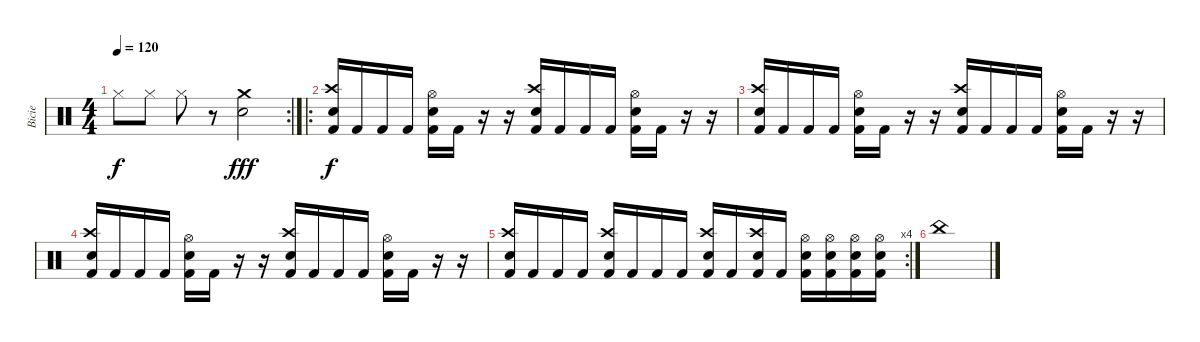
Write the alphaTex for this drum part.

\track ("Bicie" "Bicie") {instrument percussion}
\staff {score}
\articulation defaults
\rc 2
\ts (4 4)
\tempo 120
\clef neutral
\ks c "Hi-Hat (closed)".8{dy f} "Hi-Hat (closed)".8 "Hi-Hat (closed)".8
r.8 ("Crash medium (hit)" "Electric Snare (hit)").2{dy fff} |
\ro
("Crash high (hit)" "Electric Snare (hit)" "Kick (hit) 2").16{dy f} "Kick (hit) 2".16 "Kick (hit) 2".16 "Kick (hit) 2".16 ("Hi-Hat (open)" "Electric Snare (hit)" "Kick (hit) 2").16 "Kick (hit) 2".16 r.16 r.16 ("Crash high (hit)" "Electric Snare (hit)" "Kick (hit) 2").16 "Kick (hit) 2".16 "Kick (hit) 2".16 "Kick (hit) 2".16 ("Hi-Hat (open)" "Electric Snare (hit)" "Kick (hit) 2").16 "Kick (hit) 2".16 r.16 r.16 |
("Crash high (hit)" "Electric Snare (hit)" "Kick (hit) 2").16 "Kick (hit) 2".16 "Kick (hit) 2".16 "Kick (hit) 2".16 ("Hi-Hat (open)" "Electric Snare (hit)" "Kick (hit) 2").16 "Kick (hit) 2".16 r.16 r.16 ("Crash high (hit)" "Electric Snare (hit)" "Kick (hit) 2").16 "Kick (hit) 2".16 "Kick (hit) 2".16 "Kick (hit) 2".16 ("Hi-Hat (open)" "Electric Snare (hit)" "Kick (hit) 2").16 "Kick (hit) 2".16 r.16 r.16 |
("Crash high (hit)" "Electric Snare (hit)" "Kick (hit) 2").16 "Kick (hit) 2".16 "Kick (hit) 2".16 "Kick (hit) 2".16 ("Hi-Hat (open)" "Electric Snare (hit)" "Kick (hit) 2").16 "Kick (hit) 2".16 r.16 r.16 ("Crash high (hit)" "Electric Snare (hit)" "Kick (hit) 2").16 "Kick (hit) 2".16 "Kick (hit) 2".16 "Kick (hit) 2".16 ("Hi-Hat (open)" "Electric Snare (hit)" "Kick (hit) 2").16 "Kick (hit) 2".16 r.16 r.16 |
\rc 4
("Crash high (hit)" "Electric Snare (hit)" "Kick (hit) 2").16 "Kick (hit) 2".16 "Kick (hit) 2".16 "Kick (hit) 2".16 ("Crash high (hit)" "Electric Snare (hit)" "Kick (hit) 2").16 "Kick (hit) 2".16 "Kick (hit) 2".16 "Kick (hit) 2".16 ("Crash high (hit)" "Electric Snare (hit)" "Kick (hit) 2").16 "Kick (hit) 2".16 ("Crash high (hit)" "Electric Snare (hit)" "Kick (hit) 2").16 "Kick (hit) 2".16 ("Hi-Hat (open)" "Electric Snare (hit)" "Kick (hit) 2").16 ("Hi-Hat (open)" "Electric Snare (hit)" "Kick (hit) 2").16 ("Hi-Hat (open)" "Electric Snare (hit)" "Kick (hit) 2").16 ("Hi-Hat (open)" "Electric Snare (hit)" "Kick (hit) 2").16 |
"China (hit)".1
